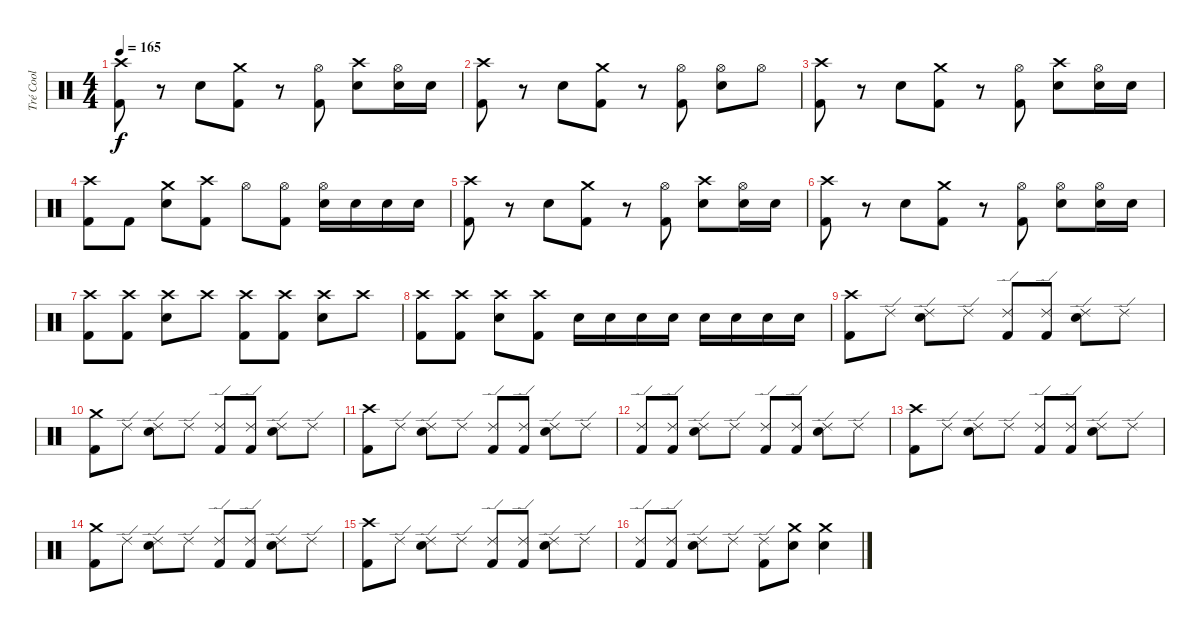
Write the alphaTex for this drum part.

\track ("Tré Cool" "Tré Cool") {instrument percussion}
\staff {score}
\articulation defaults
\ts (4 4)
\tempo 165
\clef neutral
\ks c
("Crash high (hit)" "Kick (hit) 2").8{dy f} r.8 "Electric Snare (hit)".8 ("Crash medium (hit)" "Kick (hit) 2").8 r.8 ("Hi-Hat (open)" "Kick (hit) 2").8 ("Crash high (hit)" "Electric Snare (hit)").8 ("Hi-Hat (open)" "Electric Snare (hit)").16 "Electric Snare (hit)".16 |
("Crash high (hit)" "Kick (hit) 2").8 r.8 "Electric Snare (hit)".8 ("Crash medium (hit)" "Kick (hit) 2").8 r.8 ("Hi-Hat (open)" "Kick (hit) 2").8 ("Hi-Hat (open)" "Electric Snare (hit)").8 "Hi-Hat (open)".8 |
("Crash high (hit)" "Kick (hit) 2").8 r.8 "Electric Snare (hit)".8 ("Crash medium (hit)" "Kick (hit) 2").8 r.8 ("Hi-Hat (open)" "Kick (hit) 2").8 ("Crash high (hit)" "Electric Snare (hit)").8 ("Hi-Hat (open)" "Electric Snare (hit)").16 "Electric Snare (hit)".16 |
("Crash high (hit)" "Kick (hit) 2").8 "Kick (hit) 2".8 ("Crash medium (hit)" "Electric Snare (hit)").8 ("Crash high (hit)" "Kick (hit) 2").8 "Hi-Hat (open)".8 ("Hi-Hat (open)" "Kick (hit) 2").8 ("Hi-Hat (open)" "Electric Snare (hit)").16 "Electric Snare (hit)".16 "Electric Snare (hit)".16 "Electric Snare (hit)".16 |
("Crash high (hit)" "Kick (hit) 2").8 r.8 "Electric Snare (hit)".8 ("Crash medium (hit)" "Kick (hit) 2").8 r.8 ("Hi-Hat (open)" "Kick (hit) 2").8 ("Crash high (hit)" "Electric Snare (hit)").8 ("Hi-Hat (open)" "Electric Snare (hit)").16 "Electric Snare (hit)".16 |
("Crash high (hit)" "Kick (hit) 2").8 r.8 "Electric Snare (hit)".8 ("Crash medium (hit)" "Kick (hit) 2").8 r.8 ("Hi-Hat (open)" "Kick (hit) 2").8 ("Hi-Hat (open)" "Electric Snare (hit)").8 ("Hi-Hat (open)" "Electric Snare (hit)").16 "Electric Snare (hit)".16 |
("Crash high (hit)" "Kick (hit) 2").8 ("Crash high (hit)" "Kick (hit) 2").8 ("Crash high (hit)" "Electric Snare (hit)").8 "Crash high (hit)".8 ("Crash high (hit)" "Kick (hit) 2").8 ("Crash high (hit)" "Kick (hit) 2").8 ("Crash high (hit)" "Electric Snare (hit)").8 "Crash high (hit)".8 |
("Crash high (hit)" "Kick (hit) 2").8 ("Crash high (hit)" "Kick (hit) 2").8 ("Crash high (hit)" "Electric Snare (hit)").8 ("Crash high (hit)" "Kick (hit) 2").8 "Electric Snare (hit)".16 "Electric Snare (hit)".16 "Electric Snare (hit)".16 "Electric Snare (hit)".16 "Electric Snare (hit)".16 "Electric Snare (hit)".16 "Electric Snare (hit)".16 "Electric Snare (hit)".16 |
("Crash high (hit)" "Kick (hit) 2").8 "Ride (edge) 2".8 ("Ride (edge) 2" "Electric Snare (hit)").8 "Ride (edge) 2".8 ("Ride (edge) 2" "Kick (hit) 2").8 ("Ride (edge) 2" "Kick (hit) 2").8 ("Ride (edge) 2" "Electric Snare (hit)").8 "Ride (edge) 2".8 |
("Crash medium (hit)" "Kick (hit) 2").8 "Ride (edge) 2".8 ("Ride (edge) 2" "Electric Snare (hit)").8 "Ride (edge) 2".8 ("Ride (edge) 2" "Kick (hit) 2").8 ("Ride (edge) 2" "Kick (hit) 2").8 ("Ride (edge) 2" "Electric Snare (hit)").8 "Ride (edge) 2".8 |
("Crash high (hit)" "Kick (hit) 2").8 "Ride (edge) 2".8 ("Ride (edge) 2" "Electric Snare (hit)").8 "Ride (edge) 2".8 ("Ride (edge) 2" "Kick (hit) 2").8 ("Ride (edge) 2" "Kick (hit) 2").8 ("Ride (edge) 2" "Electric Snare (hit)").8 "Ride (edge) 2".8 |
("Ride (edge) 2" "Kick (hit) 2").8 ("Ride (edge) 2" "Kick (hit) 2").8 ("Ride (edge) 2" "Electric Snare (hit)").8 "Ride (edge) 2".8 ("Ride (edge) 2" "Kick (hit) 2").8 ("Ride (edge) 2" "Kick (hit) 2").8 ("Ride (edge) 2" "Electric Snare (hit)").8 "Ride (edge) 2".8 |
("Crash high (hit)" "Kick (hit) 2").8 "Ride (edge) 2".8 ("Ride (edge) 2" "Electric Snare (hit)").8 "Ride (edge) 2".8 ("Ride (edge) 2" "Kick (hit) 2").8 ("Ride (edge) 2" "Kick (hit) 2").8 ("Ride (edge) 2" "Electric Snare (hit)").8 "Ride (edge) 2".8 |
("Crash medium (hit)" "Kick (hit) 2").8 "Ride (edge) 2".8 ("Ride (edge) 2" "Electric Snare (hit)").8 "Ride (edge) 2".8 ("Ride (edge) 2" "Kick (hit) 2").8 ("Ride (edge) 2" "Kick (hit) 2").8 ("Ride (edge) 2" "Electric Snare (hit)").8 "Ride (edge) 2".8 |
("Crash high (hit)" "Kick (hit) 2").8 "Ride (edge) 2".8 ("Ride (edge) 2" "Electric Snare (hit)").8 "Ride (edge) 2".8 ("Ride (edge) 2" "Kick (hit) 2").8 ("Ride (edge) 2" "Kick (hit) 2").8 ("Ride (edge) 2" "Electric Snare (hit)").8 "Ride (edge) 2".8 |
("Ride (edge) 2" "Kick (hit) 2").8 ("Ride (edge) 2" "Kick (hit) 2").8 ("Ride (edge) 2" "Electric Snare (hit)").8 "Ride (edge) 2".8 ("Ride (edge) 2" "Kick (hit) 2").8 ("Crash medium (hit)" "Electric Snare (hit)").8 ("Crash medium (hit)" "Electric Snare (hit)").4
